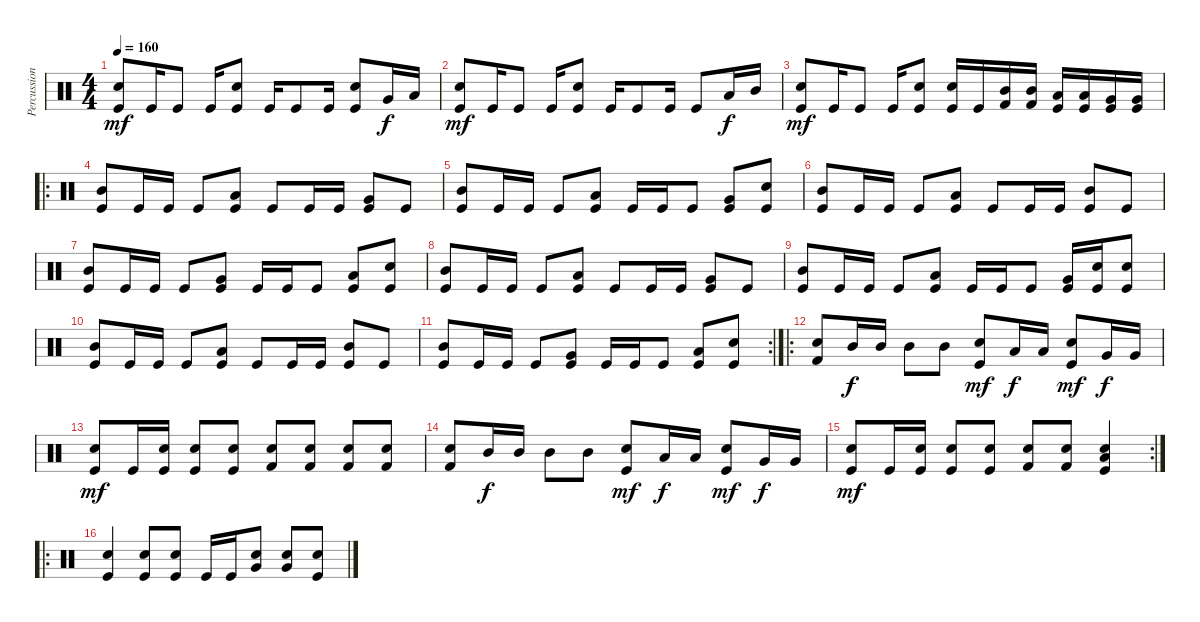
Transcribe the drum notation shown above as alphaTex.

\track ("Percussion" "Percussion") {instrument percussion}
\staff {score}
\articulation defaults
\ts (4 4)
\tempo 160
\clef neutral
\ks c
("Kick (hit)" "Electric Snare (hit)").8{dy mf} "Kick (hit)".16 "Kick (hit)".8 "Kick (hit)".16 ("Kick (hit)" "Snare (hit) 2").8 "Kick (hit)".16 "Kick (hit)".8 "Kick (hit)".16 ("Kick (hit)" "Snare (hit) 2").8 "Very Low Tom (hit)".16{dy f} "Low Tom (hit)".16 |
("Kick (hit)" "Electric Snare (hit)").8{dy mf} "Kick (hit)".16 "Kick (hit)".8 "Kick (hit)".16 ("Kick (hit)" "Snare (hit) 2").8 "Kick (hit)".16 "Kick (hit)".8 "Kick (hit)".16 "Kick (hit)".8 "Low Tom (hit)".16{dy f} "Mid Tom (hit)".16 |
("Kick (hit)" "Electric Snare (hit)").8{dy mf} "Kick (hit)".16 "Kick (hit)".8 "Kick (hit)".16 ("Kick (hit)" "Snare (hit) 2").8 ("Kick (hit)" "Electric Snare (hit)").16 "Kick (hit)".16 ("Mid Tom (hit)" "Kick (hit) 2").16 ("Mid Tom (hit)" "Kick (hit) 2").16 ("Low Tom (hit)" "Kick (hit)").16 ("Low Tom (hit)" "Kick (hit)").16 ("Very Low Tom (hit)" "Kick (hit)").16 ("Very Low Tom (hit)" "Kick (hit)").16 |
\ro
("Kick (hit)" "Mid Tom (hit)").8{volume 10} "Kick (hit)".16 "Kick (hit)".16 "Kick (hit)".8 ("Kick (hit)" "Low Tom (hit)").8 "Kick (hit)".8 "Kick (hit)".16 "Kick (hit)".16 ("Kick (hit)" "Very Low Tom (hit)").8 "Kick (hit)".8 |
("Kick (hit)" "Mid Tom (hit)").8 "Kick (hit)".16 "Kick (hit)".16 "Kick (hit)".8 ("Kick (hit)" "Low Tom (hit)").8 "Kick (hit)".16 "Kick (hit)".16 "Kick (hit)".8 ("Kick (hit)" "Very Low Tom (hit)").8 ("Kick (hit)" "Electric Snare (hit)").8 |
("Kick (hit)" "Mid Tom (hit)").8 "Kick (hit)".16 "Kick (hit)".16 "Kick (hit)".8 ("Kick (hit)" "Low Tom (hit)").8 "Kick (hit)".8 "Kick (hit)".16 "Kick (hit)".16 ("Kick (hit)" "Mid Tom (hit)").8 "Kick (hit)".8 |
("Kick (hit)" "Mid Tom (hit)").8 "Kick (hit)".16 "Kick (hit)".16 "Kick (hit)".8 ("Kick (hit)" "Very Low Tom (hit)").8 "Kick (hit)".16 "Kick (hit)".16 "Kick (hit)".8 ("Kick (hit)" "Low Tom (hit)").8 ("Kick (hit)" "Electric Snare (hit)").8 |
("Kick (hit)" "Mid Tom (hit)").8 "Kick (hit)".16 "Kick (hit)".16 "Kick (hit)".8 ("Kick (hit)" "Low Tom (hit)").8 "Kick (hit)".8 "Kick (hit)".16 "Kick (hit)".16 ("Kick (hit)" "Very Low Tom (hit)").8 "Kick (hit)".8 |
("Kick (hit)" "Mid Tom (hit)").8 "Kick (hit)".16 "Kick (hit)".16 "Kick (hit)".8 ("Kick (hit)" "Low Tom (hit)").8 "Kick (hit)".16 "Kick (hit)".16 "Kick (hit)".8 ("Kick (hit)" "Very Low Tom (hit)").16 ("Kick (hit)" "Electric Snare (hit)").16 ("Kick (hit)" "Snare (hit) 2").8 |
("Kick (hit)" "Mid Tom (hit)").8 "Kick (hit)".16 "Kick (hit)".16 "Kick (hit)".8 ("Kick (hit)" "Low Tom (hit)").8 "Kick (hit)".8 "Kick (hit)".16 "Kick (hit)".16 ("Kick (hit)" "Mid Tom (hit)").8 "Kick (hit)".8 |
\rc 2
("Kick (hit)" "Mid Tom (hit)").8 "Kick (hit)".16 "Kick (hit)".16 "Kick (hit)".8 ("Kick (hit)" "Very Low Tom (hit)").8 "Kick (hit)".16 "Kick (hit)".16 "Kick (hit)".8 ("Kick (hit)" "Low Tom (hit)").8 ("Kick (hit)" "Electric Snare (hit)").8 |
\ro
("Electric Snare (hit)" "Kick (hit) 2").8 "Mid Tom (hit)".16{dy f} "Mid Tom (hit)".16 "Mid Tom (hit)".8 "Mid Tom (hit)".8 ("Electric Snare (hit)" "Kick (hit)").8{dy mf} "Low Tom (hit)".16{dy f} "Low Tom (hit)".16 ("Snare (hit) 2" "Kick (hit)").8{dy mf} "Very Low Tom (hit)".16{dy f} "Very Low Tom (hit)".16 |
("Electric Snare (hit)" "Kick (hit)").8{dy mf} "Kick (hit)".16 ("Snare (hit) 2" "Kick (hit)").16 ("Snare (hit) 2" "Kick (hit)").8 ("Snare (hit) 2" "Kick (hit)").8 ("Snare (hit) 2" "Kick (hit) 2").8 ("Snare (hit) 2" "Kick (hit) 2").8 ("Snare (hit) 2" "Kick (hit) 2").8 ("Electric Snare (hit)" "Kick (hit) 2").8 |
("Electric Snare (hit)" "Kick (hit) 2").8 "Mid Tom (hit)".16{dy f} "Mid Tom (hit)".16 "Mid Tom (hit)".8 "Mid Tom (hit)".8 ("Electric Snare (hit)" "Kick (hit)").8{dy mf} "Low Tom (hit)".16{dy f} "Low Tom (hit)".16 ("Snare (hit) 2" "Kick (hit)").8{dy mf} "Very Low Tom (hit)".16{dy f} "Very Low Tom (hit)".16 |
\rc 2
("Electric Snare (hit)" "Kick (hit)").8{dy mf} "Kick (hit)".16 ("Snare (hit) 2" "Kick (hit)").16 ("Snare (hit) 2" "Kick (hit)").8 ("Snare (hit) 2" "Kick (hit)").8 ("Snare (hit) 2" "Kick (hit) 2").8 ("Snare (hit) 2" "Kick (hit) 2").8 ("Snare (hit) 2" "Kick (hit)" "Low Tom (hit)").4 |
\ro
("Snare (hit) 2" "Kick (hit)").4 ("Snare (hit) 2" "Kick (hit)").8 ("Snare (hit) 2" "Kick (hit)").8 "Kick (hit)".16 "Kick (hit)".16 ("Snare (hit) 2" "Very Low Tom (hit)").8 ("Snare (hit) 2" "Very Low Tom (hit)").8 ("Snare (hit) 2" "Kick (hit)").8
